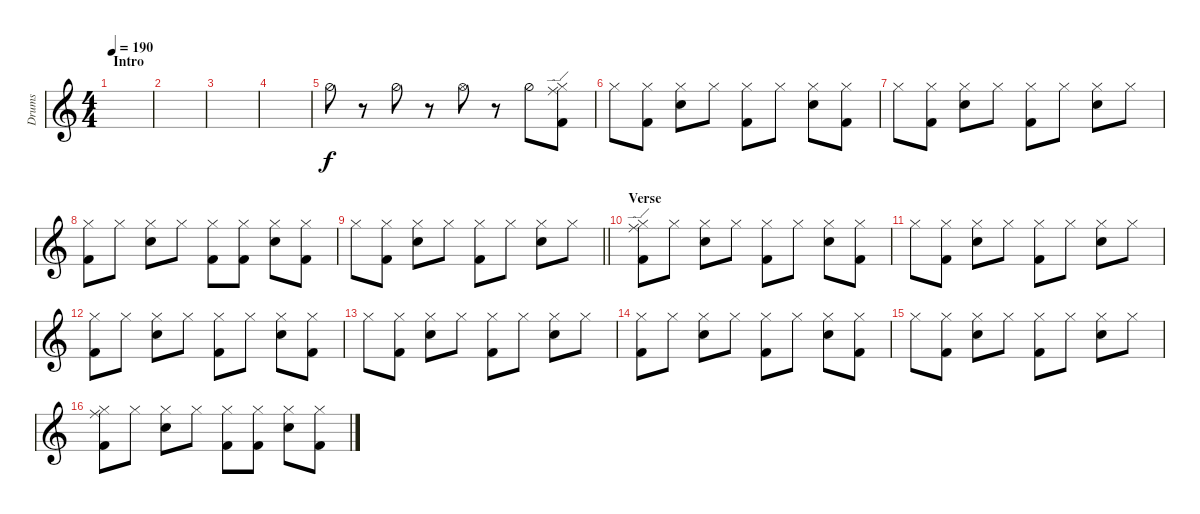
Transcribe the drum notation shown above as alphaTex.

\defaultSystemsLayout 4
\bracketExtendMode groupsimilarinstruments
\otherSystemsTrackNameOrientation horizontal
\track ("Prakarsh" "Drums") {instrument percussion}
\staff {score}
\articulation defaults
\ts (4 4)
\section ("" "Intro")
\tempo 190
\clef g2
\ks c
|
|
|
|
"Hi-Hat (half)".8{beam Down} r.8{beam Down} "Hi-Hat (half)".8{beam Down} r.8{beam Down} "Hi-Hat (open)".8{beam Down} r.8{beam Down} "Hi-Hat (half)".8{beam Down} ("Kick (hit) 2" "Hi-Hat (closed)" "Ride (edge)").8{beam Down} |
"Hi-Hat (closed)".8{beam Down} ("Hi-Hat (closed)" "Kick (hit) 2").8{beam Down} ("Hi-Hat (closed)" "Snare (hit) 2").8{beam Down} "Hi-Hat (closed)".8{beam Down} ("Hi-Hat (closed)" "Kick (hit) 2").8{beam Down} "Hi-Hat (closed)".8{beam Down} ("Hi-Hat (closed)" "Snare (hit) 2").8{beam Down} ("Hi-Hat (closed)" "Kick (hit) 2").8{beam Down} |
"Hi-Hat (closed)".8{beam Down} ("Hi-Hat (closed)" "Kick (hit) 2").8{beam Down} ("Hi-Hat (closed)" "Snare (hit) 2").8{beam Down} "Hi-Hat (closed)".8{beam Down} ("Hi-Hat (closed)" "Kick (hit) 2").8{beam Down} "Hi-Hat (closed)".8{beam Down} ("Hi-Hat (closed)" "Snare (hit) 2").8{beam Down} "Hi-Hat (closed)".8{beam Down} |
("Kick (hit) 2" "Hi-Hat (closed)").8{beam Down} "Hi-Hat (closed)".8{beam Down} ("Hi-Hat (closed)" "Snare (hit) 2").8{beam Down} "Hi-Hat (closed)".8{beam Down} ("Hi-Hat (closed)" "Kick (hit) 2").8{beam Down} ("Hi-Hat (closed)" "Kick (hit) 2").8{beam Down} ("Hi-Hat (closed)" "Snare (hit) 2").8{beam Down} ("Hi-Hat (closed)" "Kick (hit) 2").8{beam Down} |
\barLineRight lightlight "Hi-Hat (closed)".8{beam Down}
("Hi-Hat (closed)" "Kick (hit) 2").8{beam Down} ("Hi-Hat (closed)" "Snare (hit) 2").8{beam Down} "Hi-Hat (closed)".8{beam Down} ("Hi-Hat (closed)" "Kick (hit) 2").8{beam Down} "Hi-Hat (closed)".8{beam Down} ("Hi-Hat (closed)" "Snare (hit) 2").8{beam Down} "Hi-Hat (closed)".8{beam Down} |
\section ("" "Verse")
("Kick (hit) 2" "Hi-Hat (closed)" "Ride (edge)").8{beam Down} "Hi-Hat (closed)".8{beam Down} ("Hi-Hat (closed)" "Snare (hit) 2").8{beam Down} "Hi-Hat (closed)".8{beam Down} ("Hi-Hat (closed)" "Kick (hit) 2").8{beam Down} "Hi-Hat (closed)".8{beam Down} ("Hi-Hat (closed)" "Snare (hit) 2").8{beam Down} ("Hi-Hat (closed)" "Kick (hit) 2").8{beam Down} |
"Hi-Hat (closed)".8{beam Down} ("Hi-Hat (closed)" "Kick (hit) 2").8{beam Down} ("Hi-Hat (closed)" "Snare (hit) 2").8{beam Down} "Hi-Hat (closed)".8{beam Down} ("Hi-Hat (closed)" "Kick (hit) 2").8{beam Down} "Hi-Hat (closed)".8{beam Down} ("Hi-Hat (closed)" "Snare (hit) 2").8{beam Down} "Hi-Hat (closed)".8{beam Down} |
("Kick (hit) 2" "Hi-Hat (closed)").8{beam Down} "Hi-Hat (closed)".8{beam Down} ("Hi-Hat (closed)" "Snare (hit) 2").8{beam Down} "Hi-Hat (closed)".8{beam Down} ("Hi-Hat (closed)" "Kick (hit) 2").8{beam Down} "Hi-Hat (closed)".8{beam Down} ("Hi-Hat (closed)" "Snare (hit) 2").8{beam Down} ("Hi-Hat (closed)" "Kick (hit) 2").8{beam Down} |
"Hi-Hat (closed)".8{beam Down} ("Hi-Hat (closed)" "Kick (hit) 2").8{beam Down} ("Hi-Hat (closed)" "Snare (hit) 2").8{beam Down} "Hi-Hat (closed)".8{beam Down} ("Hi-Hat (closed)" "Kick (hit) 2").8{beam Down} "Hi-Hat (closed)".8{beam Down} ("Hi-Hat (closed)" "Snare (hit) 2").8{beam Down} "Hi-Hat (closed)".8{beam Down} |
("Kick (hit) 2" "Hi-Hat (closed)").8{beam Down} "Hi-Hat (closed)".8{beam Down} ("Hi-Hat (closed)" "Snare (hit) 2").8{beam Down} "Hi-Hat (closed)".8{beam Down} ("Hi-Hat (closed)" "Kick (hit) 2").8{beam Down} "Hi-Hat (closed)".8{beam Down} ("Hi-Hat (closed)" "Snare (hit) 2").8{beam Down} ("Hi-Hat (closed)" "Kick (hit) 2").8{beam Down} |
"Hi-Hat (closed)".8{beam Down} ("Hi-Hat (closed)" "Kick (hit) 2").8{beam Down} ("Hi-Hat (closed)" "Snare (hit) 2").8{beam Down} "Hi-Hat (closed)".8{beam Down} ("Hi-Hat (closed)" "Kick (hit) 2").8{beam Down} "Hi-Hat (closed)".8{beam Down} ("Hi-Hat (closed)" "Snare (hit) 2").8{beam Down} "Hi-Hat (closed)".8{beam Down} |
("Kick (hit) 2" "Hi-Hat (closed)" "Ride (middle)").8{beam Down} "Hi-Hat (closed)".8{beam Down} ("Hi-Hat (closed)" "Snare (hit) 2").8{beam Down} "Hi-Hat (closed)".8{beam Down} ("Hi-Hat (closed)" "Kick (hit) 2").8{beam Down} ("Hi-Hat (closed)" "Kick (hit) 2").8{beam Down} ("Hi-Hat (closed)" "Snare (hit) 2").8{beam Down} ("Hi-Hat (closed)" "Kick (hit) 2").8{beam Down}
